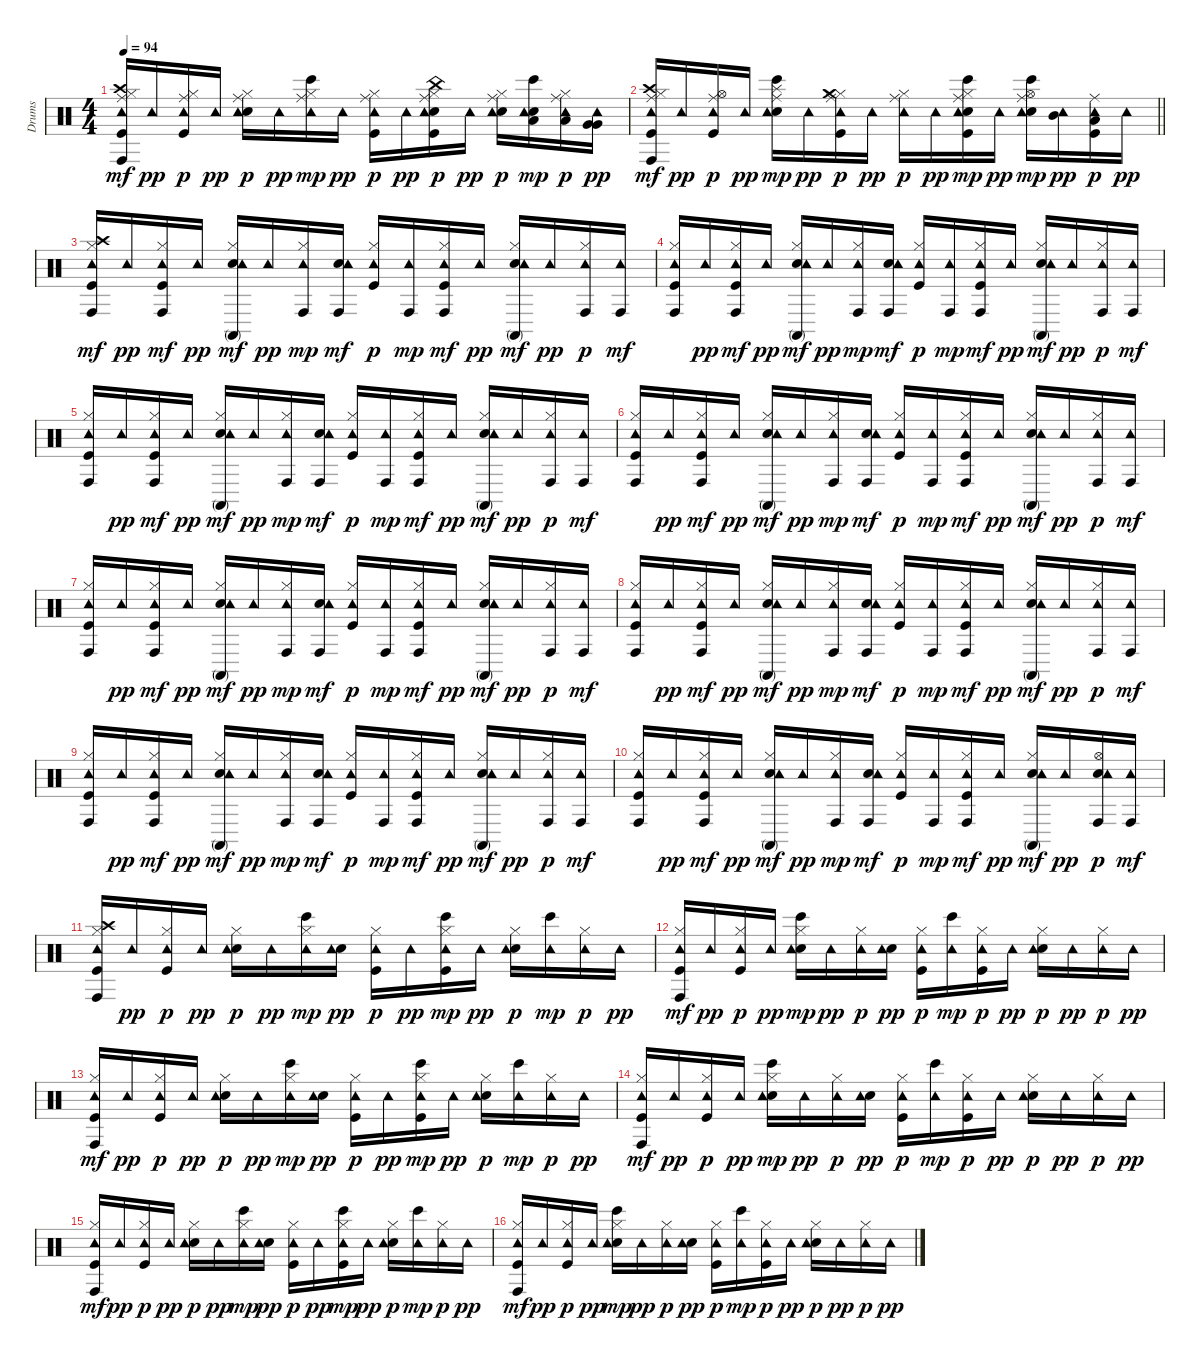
\track ("Drums" "Drums") {instrument percussion}
\staff {score}
\articulation defaults
\ts (4 4)
\tempo 94
\clef neutral
\ks c
("Kick (hit)" "Hi-Hat (closed)" "Crash high (hit)" "Ride (middle)" "Tambourine (hit)" "Conga high (hit)").16{dy mf} "Tambourine (hit)".16{dy pp} ("Kick (hit)" "Hi-Hat (closed)" "Ride (middle)" "Tambourine (hit)").16{dy p} "Tambourine (hit)".16{dy pp} ("Electric Snare (hit)" "Hi-Hat (closed)" "Ride (middle)" "Tambourine (hit)").16{dy p} "Tambourine (hit)".16{dy pp} ("Hi-Hat (closed)" "Ride (middle)" "Tambourine (hit)" "Bongo High (hit)").16{dy mp} "Tambourine (hit)".16{dy pp} ("Kick (hit)" "Hi-Hat (closed)" "Ride (middle)" "Tambourine (hit)").16{dy p} "Tambourine (hit)".16{dy pp} ("Kick (hit)" "Electric Snare (hit)" "Hi-Hat (closed)" "Ride (middle)" "China (hit)" "Tambourine (hit)").16{dy p} "Tambourine (hit)".16{dy pp} ("Electric Snare (hit)" "Hi-Hat (closed)" "Ride (middle)" "Tambourine (hit)").16{dy p} ("Electric Snare (hit)" "Low Tom (hit)" "Tambourine (hit)" "Bongo High (hit)").16{dy mp} ("Hi-Hat (closed)" "Low Tom (hit)" "Ride (middle)" "Tambourine (hit)").16{dy p} ("Very Low Tom (hit)" "Very Low Tom (hit)" "Tambourine (hit)").16{dy pp} |
\barLineRight lightlight
("Kick (hit)" "Hi-Hat (closed)" "Crash high (hit)" "Ride (middle)" "Tambourine (hit)" "Conga high (hit)").16{dy mf} "Tambourine (hit)".16{dy pp} ("Kick (hit)" "Hi-Hat (open)" "Ride (middle)" "Tambourine (hit)").16{dy p} "Tambourine (hit)".16{dy pp} ("Electric Snare (hit)" "Ride (middle)" "Tambourine (hit)" "Splash (hit)" "Bongo High (hit)").16{dy mp} "Tambourine (hit)".16{dy pp} ("Kick (hit)" "Hi-Hat (closed)" "Ride (middle)" "Tambourine (hit)" "Crash medium (hit)").16{dy p} "Tambourine (hit)".16{dy pp} ("Hi-Hat (closed)" "Ride (middle)" "Tambourine (hit)").16{dy p} "Tambourine (hit)".16{dy pp} ("Kick (hit)" "Electric Snare (hit)" "Hi-Hat (closed)" "Ride (middle)" "Tambourine (hit)" "Bongo High (hit)").16{dy mp} "Tambourine (hit)".16{dy pp} ("Electric Snare (hit)" "Hi-Hat (open)" "Ride (middle)" "Tambourine (hit)" "Bongo High (hit)").16{dy mp} ("Mid Tom (hit)" "Tambourine (hit)").16{dy pp} ("Kick (hit)" "Low Tom (hit)" "Ride (middle)" "Tambourine (hit)").16{dy p} "Tambourine (hit)".16{dy pp} |
("Kick (hit)" "Hi-Hat (closed)" "Crash high (hit)" "Tambourine (hit)" "Conga high (hit)").16{dy mf} "Tambourine (hit)".16{dy pp} ("Kick (hit)" "Hi-Hat (closed)" "Tambourine (hit)" "Conga high (hit)").16{dy mf} "Tambourine (hit)".16{dy pp} ("Electric Snare (hit)" "Hi-Hat (closed)" "Tambourine (hit)" "Conga high (mute)").16{dy mf} "Tambourine (hit)".16{dy pp} ("Hi-Hat (closed)" "Tambourine (hit)" "Conga high (hit)").16{dy mp} ("Electric Snare (hit)" "Tambourine (hit)" "Conga high (hit)").16{dy mf} ("Kick (hit)" "Hi-Hat (closed)" "Tambourine (hit)").16{dy p} ("Tambourine (hit)" "Conga high (hit)").16{dy mp} ("Kick (hit)" "Hi-Hat (closed)" "Tambourine (hit)" "Conga high (hit)").16{dy mf} "Tambourine (hit)".16{dy pp} ("Electric Snare (hit)" "Hi-Hat (closed)" "Tambourine (hit)" "Conga high (mute)").16{dy mf} "Tambourine (hit)".16{dy pp} ("Hi-Hat (closed)" "Tambourine (hit)" "Conga high (hit)").16{dy p} ("Tambourine (hit)" "Conga high (hit)").16{dy mf} |
("Kick (hit)" "Hi-Hat (closed)" "Tambourine (hit)" "Conga high (hit)").16 "Tambourine (hit)".16{dy pp} ("Kick (hit)" "Hi-Hat (closed)" "Tambourine (hit)" "Conga high (hit)").16{dy mf} "Tambourine (hit)".16{dy pp} ("Electric Snare (hit)" "Hi-Hat (closed)" "Tambourine (hit)" "Conga high (mute)").16{dy mf} "Tambourine (hit)".16{dy pp} ("Hi-Hat (closed)" "Tambourine (hit)" "Conga high (hit)").16{dy mp} ("Electric Snare (hit)" "Tambourine (hit)" "Conga high (hit)").16{dy mf} ("Kick (hit)" "Hi-Hat (closed)" "Tambourine (hit)").16{dy p} ("Tambourine (hit)" "Conga high (hit)").16{dy mp} ("Kick (hit)" "Hi-Hat (closed)" "Tambourine (hit)" "Conga high (hit)").16{dy mf} "Tambourine (hit)".16{dy pp} ("Electric Snare (hit)" "Hi-Hat (closed)" "Tambourine (hit)" "Conga high (mute)").16{dy mf} "Tambourine (hit)".16{dy pp} ("Hi-Hat (closed)" "Tambourine (hit)" "Conga high (hit)").16{dy p} ("Tambourine (hit)" "Conga high (hit)").16{dy mf} |
("Kick (hit)" "Hi-Hat (closed)" "Tambourine (hit)" "Conga high (hit)").16 "Tambourine (hit)".16{dy pp} ("Kick (hit)" "Hi-Hat (closed)" "Tambourine (hit)" "Conga high (hit)").16{dy mf} "Tambourine (hit)".16{dy pp} ("Electric Snare (hit)" "Hi-Hat (closed)" "Tambourine (hit)" "Conga high (mute)").16{dy mf} "Tambourine (hit)".16{dy pp} ("Hi-Hat (closed)" "Tambourine (hit)" "Conga high (hit)").16{dy mp} ("Electric Snare (hit)" "Tambourine (hit)" "Conga high (hit)").16{dy mf} ("Kick (hit)" "Hi-Hat (closed)" "Tambourine (hit)").16{dy p} ("Tambourine (hit)" "Conga high (hit)").16{dy mp} ("Kick (hit)" "Hi-Hat (closed)" "Tambourine (hit)" "Conga high (hit)").16{dy mf} "Tambourine (hit)".16{dy pp} ("Electric Snare (hit)" "Hi-Hat (closed)" "Tambourine (hit)" "Conga high (mute)").16{dy mf} "Tambourine (hit)".16{dy pp} ("Hi-Hat (closed)" "Tambourine (hit)" "Conga high (hit)").16{dy p} ("Tambourine (hit)" "Conga high (hit)").16{dy mf} |
("Kick (hit)" "Hi-Hat (closed)" "Tambourine (hit)" "Conga high (hit)").16 "Tambourine (hit)".16{dy pp} ("Kick (hit)" "Hi-Hat (closed)" "Tambourine (hit)" "Conga high (hit)").16{dy mf} "Tambourine (hit)".16{dy pp} ("Electric Snare (hit)" "Hi-Hat (closed)" "Tambourine (hit)" "Conga high (mute)").16{dy mf} "Tambourine (hit)".16{dy pp} ("Hi-Hat (closed)" "Tambourine (hit)" "Conga high (hit)").16{dy mp} ("Electric Snare (hit)" "Tambourine (hit)" "Conga high (hit)").16{dy mf} ("Kick (hit)" "Hi-Hat (closed)" "Tambourine (hit)").16{dy p} ("Tambourine (hit)" "Conga high (hit)").16{dy mp} ("Kick (hit)" "Hi-Hat (closed)" "Tambourine (hit)" "Conga high (hit)").16{dy mf} "Tambourine (hit)".16{dy pp} ("Electric Snare (hit)" "Hi-Hat (closed)" "Tambourine (hit)" "Conga high (mute)").16{dy mf} "Tambourine (hit)".16{dy pp} ("Hi-Hat (closed)" "Tambourine (hit)" "Conga high (hit)").16{dy p} ("Tambourine (hit)" "Conga high (hit)").16{dy mf} |
("Kick (hit)" "Hi-Hat (closed)" "Tambourine (hit)" "Conga high (hit)").16 "Tambourine (hit)".16{dy pp} ("Kick (hit)" "Hi-Hat (closed)" "Tambourine (hit)" "Conga high (hit)").16{dy mf} "Tambourine (hit)".16{dy pp} ("Electric Snare (hit)" "Hi-Hat (closed)" "Tambourine (hit)" "Conga high (mute)").16{dy mf} "Tambourine (hit)".16{dy pp} ("Hi-Hat (closed)" "Tambourine (hit)" "Conga high (hit)").16{dy mp} ("Electric Snare (hit)" "Tambourine (hit)" "Conga high (hit)").16{dy mf} ("Kick (hit)" "Hi-Hat (closed)" "Tambourine (hit)").16{dy p} ("Tambourine (hit)" "Conga high (hit)").16{dy mp} ("Kick (hit)" "Hi-Hat (closed)" "Tambourine (hit)" "Conga high (hit)").16{dy mf} "Tambourine (hit)".16{dy pp} ("Electric Snare (hit)" "Hi-Hat (closed)" "Tambourine (hit)" "Conga high (mute)").16{dy mf} "Tambourine (hit)".16{dy pp} ("Hi-Hat (closed)" "Tambourine (hit)" "Conga high (hit)").16{dy p} ("Tambourine (hit)" "Conga high (hit)").16{dy mf} |
("Kick (hit)" "Hi-Hat (closed)" "Tambourine (hit)" "Conga high (hit)").16 "Tambourine (hit)".16{dy pp} ("Kick (hit)" "Hi-Hat (closed)" "Tambourine (hit)" "Conga high (hit)").16{dy mf} "Tambourine (hit)".16{dy pp} ("Electric Snare (hit)" "Hi-Hat (closed)" "Tambourine (hit)" "Conga high (mute)").16{dy mf} "Tambourine (hit)".16{dy pp} ("Hi-Hat (closed)" "Tambourine (hit)" "Conga high (hit)").16{dy mp} ("Electric Snare (hit)" "Tambourine (hit)" "Conga high (hit)").16{dy mf} ("Kick (hit)" "Hi-Hat (closed)" "Tambourine (hit)").16{dy p} ("Tambourine (hit)" "Conga high (hit)").16{dy mp} ("Kick (hit)" "Hi-Hat (closed)" "Tambourine (hit)" "Conga high (hit)").16{dy mf} "Tambourine (hit)".16{dy pp} ("Electric Snare (hit)" "Hi-Hat (closed)" "Tambourine (hit)" "Conga high (mute)").16{dy mf} "Tambourine (hit)".16{dy pp} ("Hi-Hat (closed)" "Tambourine (hit)" "Conga high (hit)").16{dy p} ("Tambourine (hit)" "Conga high (hit)").16{dy mf} |
("Kick (hit)" "Hi-Hat (closed)" "Tambourine (hit)" "Conga high (hit)").16 "Tambourine (hit)".16{dy pp} ("Kick (hit)" "Hi-Hat (closed)" "Tambourine (hit)" "Conga high (hit)").16{dy mf} "Tambourine (hit)".16{dy pp} ("Electric Snare (hit)" "Hi-Hat (closed)" "Tambourine (hit)" "Conga high (mute)").16{dy mf} "Tambourine (hit)".16{dy pp} ("Hi-Hat (closed)" "Tambourine (hit)" "Conga high (hit)").16{dy mp} ("Electric Snare (hit)" "Tambourine (hit)" "Conga high (hit)").16{dy mf} ("Kick (hit)" "Hi-Hat (closed)" "Tambourine (hit)").16{dy p} ("Tambourine (hit)" "Conga high (hit)").16{dy mp} ("Kick (hit)" "Hi-Hat (closed)" "Tambourine (hit)" "Conga high (hit)").16{dy mf} "Tambourine (hit)".16{dy pp} ("Electric Snare (hit)" "Hi-Hat (closed)" "Tambourine (hit)" "Conga high (mute)").16{dy mf} "Tambourine (hit)".16{dy pp} ("Hi-Hat (closed)" "Tambourine (hit)" "Conga high (hit)").16{dy p} ("Tambourine (hit)" "Conga high (hit)").16{dy mf} |
("Kick (hit)" "Hi-Hat (closed)" "Tambourine (hit)" "Conga high (hit)").16 "Tambourine (hit)".16{dy pp} ("Kick (hit)" "Hi-Hat (closed)" "Tambourine (hit)" "Conga high (hit)").16{dy mf} "Tambourine (hit)".16{dy pp} ("Electric Snare (hit)" "Hi-Hat (closed)" "Tambourine (hit)" "Conga high (mute)").16{dy mf} "Tambourine (hit)".16{dy pp} ("Hi-Hat (closed)" "Tambourine (hit)" "Conga high (hit)").16{dy mp} ("Electric Snare (hit)" "Tambourine (hit)" "Conga high (hit)").16{dy mf} ("Kick (hit)" "Hi-Hat (closed)" "Tambourine (hit)").16{dy p} ("Tambourine (hit)" "Conga high (hit)").16{dy mp} ("Kick (hit)" "Hi-Hat (closed)" "Tambourine (hit)" "Conga high (hit)").16{dy mf} "Tambourine (hit)".16{dy pp} ("Electric Snare (hit)" "Hi-Hat (closed)" "Tambourine (hit)" "Conga high (mute)").16{dy mf} "Tambourine (hit)".16{dy pp} ("Electric Snare (hit)" "Hi-Hat (open)" "Tambourine (hit)" "Conga high (hit)").16{dy p} ("Tambourine (hit)" "Conga high (hit)").16{dy mf} |
("Kick (hit)" "Hi-Hat (closed)" "Crash high (hit)" "Tambourine (hit)" "Conga high (hit)").16 "Tambourine (hit)".16{dy pp} ("Kick (hit)" "Hi-Hat (closed)" "Tambourine (hit)").16{dy p} "Tambourine (hit)".16{dy pp} ("Electric Snare (hit)" "Hi-Hat (closed)" "Tambourine (hit)").16{dy p} "Tambourine (hit)".16{dy pp} ("Hi-Hat (closed)" "Tambourine (hit)" "Bongo High (hit)").16{dy mp} ("Electric Snare (hit)" "Tambourine (hit)").16{dy pp} ("Kick (hit)" "Hi-Hat (closed)" "Tambourine (hit)").16{dy p} "Tambourine (hit)".16{dy pp} ("Kick (hit)" "Hi-Hat (closed)" "Tambourine (hit)" "Bongo High (hit)").16{dy mp} "Tambourine (hit)".16{dy pp} ("Electric Snare (hit)" "Hi-Hat (closed)" "Tambourine (hit)").16{dy p} ("Tambourine (hit)" "Bongo High (hit)").16{dy mp} ("Hi-Hat (closed)" "Tambourine (hit)").16{dy p} "Tambourine (hit)".16{dy pp} |
("Kick (hit)" "Hi-Hat (closed)" "Tambourine (hit)" "Conga high (hit)").16{dy mf} "Tambourine (hit)".16{dy pp} ("Kick (hit)" "Hi-Hat (closed)" "Tambourine (hit)").16{dy p} "Tambourine (hit)".16{dy pp} ("Electric Snare (hit)" "Hi-Hat (closed)" "Tambourine (hit)" "Bongo High (hit)").16{dy mp} "Tambourine (hit)".16{dy pp} ("Hi-Hat (closed)" "Tambourine (hit)").16{dy p} ("Electric Snare (hit)" "Tambourine (hit)").16{dy pp} ("Kick (hit)" "Hi-Hat (closed)" "Tambourine (hit)").16{dy p} ("Tambourine (hit)" "Bongo High (hit)").16{dy mp} ("Kick (hit)" "Hi-Hat (closed)" "Tambourine (hit)").16{dy p} "Tambourine (hit)".16{dy pp} ("Electric Snare (hit)" "Hi-Hat (closed)" "Tambourine (hit)").16{dy p} "Tambourine (hit)".16{dy pp} ("Hi-Hat (closed)" "Tambourine (hit)").16{dy p} "Tambourine (hit)".16{dy pp} |
("Kick (hit)" "Hi-Hat (closed)" "Tambourine (hit)" "Conga high (hit)").16{dy mf} "Tambourine (hit)".16{dy pp} ("Kick (hit)" "Hi-Hat (closed)" "Tambourine (hit)").16{dy p} "Tambourine (hit)".16{dy pp} ("Electric Snare (hit)" "Hi-Hat (closed)" "Tambourine (hit)").16{dy p} "Tambourine (hit)".16{dy pp} ("Hi-Hat (closed)" "Tambourine (hit)" "Bongo High (hit)").16{dy mp} ("Electric Snare (hit)" "Tambourine (hit)").16{dy pp} ("Kick (hit)" "Hi-Hat (closed)" "Tambourine (hit)").16{dy p} "Tambourine (hit)".16{dy pp} ("Kick (hit)" "Hi-Hat (closed)" "Tambourine (hit)" "Bongo High (hit)").16{dy mp} "Tambourine (hit)".16{dy pp} ("Electric Snare (hit)" "Hi-Hat (closed)" "Tambourine (hit)").16{dy p} ("Tambourine (hit)" "Bongo High (hit)").16{dy mp} ("Hi-Hat (closed)" "Tambourine (hit)").16{dy p} "Tambourine (hit)".16{dy pp} |
("Kick (hit)" "Hi-Hat (closed)" "Tambourine (hit)" "Conga high (hit)").16{dy mf} "Tambourine (hit)".16{dy pp} ("Kick (hit)" "Hi-Hat (closed)" "Tambourine (hit)").16{dy p} "Tambourine (hit)".16{dy pp} ("Electric Snare (hit)" "Hi-Hat (closed)" "Tambourine (hit)" "Bongo High (hit)").16{dy mp} "Tambourine (hit)".16{dy pp} ("Hi-Hat (closed)" "Tambourine (hit)").16{dy p} ("Electric Snare (hit)" "Tambourine (hit)").16{dy pp} ("Kick (hit)" "Hi-Hat (closed)" "Tambourine (hit)").16{dy p} ("Tambourine (hit)" "Bongo High (hit)").16{dy mp} ("Kick (hit)" "Hi-Hat (closed)" "Tambourine (hit)").16{dy p} "Tambourine (hit)".16{dy pp} ("Electric Snare (hit)" "Hi-Hat (closed)" "Tambourine (hit)").16{dy p} "Tambourine (hit)".16{dy pp} ("Hi-Hat (closed)" "Tambourine (hit)").16{dy p} "Tambourine (hit)".16{dy pp} |
("Kick (hit)" "Hi-Hat (closed)" "Tambourine (hit)" "Conga high (hit)").16{dy mf} "Tambourine (hit)".16{dy pp} ("Kick (hit)" "Hi-Hat (closed)" "Tambourine (hit)").16{dy p} "Tambourine (hit)".16{dy pp} ("Electric Snare (hit)" "Hi-Hat (closed)" "Tambourine (hit)").16{dy p} "Tambourine (hit)".16{dy pp} ("Hi-Hat (closed)" "Tambourine (hit)" "Bongo High (hit)").16{dy mp} ("Electric Snare (hit)" "Tambourine (hit)").16{dy pp} ("Kick (hit)" "Hi-Hat (closed)" "Tambourine (hit)").16{dy p} "Tambourine (hit)".16{dy pp} ("Kick (hit)" "Hi-Hat (closed)" "Tambourine (hit)" "Bongo High (hit)").16{dy mp} "Tambourine (hit)".16{dy pp} ("Electric Snare (hit)" "Hi-Hat (closed)" "Tambourine (hit)").16{dy p} ("Tambourine (hit)" "Bongo High (hit)").16{dy mp} ("Hi-Hat (closed)" "Tambourine (hit)").16{dy p} "Tambourine (hit)".16{dy pp} |
("Kick (hit)" "Hi-Hat (closed)" "Tambourine (hit)" "Conga high (hit)").16{dy mf} "Tambourine (hit)".16{dy pp} ("Kick (hit)" "Hi-Hat (closed)" "Tambourine (hit)").16{dy p} "Tambourine (hit)".16{dy pp} ("Electric Snare (hit)" "Hi-Hat (closed)" "Tambourine (hit)" "Bongo High (hit)").16{dy mp} "Tambourine (hit)".16{dy pp} ("Hi-Hat (closed)" "Tambourine (hit)").16{dy p} ("Electric Snare (hit)" "Tambourine (hit)").16{dy pp} ("Kick (hit)" "Hi-Hat (closed)" "Tambourine (hit)").16{dy p} ("Tambourine (hit)" "Bongo High (hit)").16{dy mp} ("Kick (hit)" "Hi-Hat (closed)" "Tambourine (hit)").16{dy p} "Tambourine (hit)".16{dy pp} ("Electric Snare (hit)" "Hi-Hat (closed)" "Tambourine (hit)").16{dy p} "Tambourine (hit)".16{dy pp} ("Hi-Hat (closed)" "Tambourine (hit)").16{dy p} "Tambourine (hit)".16{dy pp}
